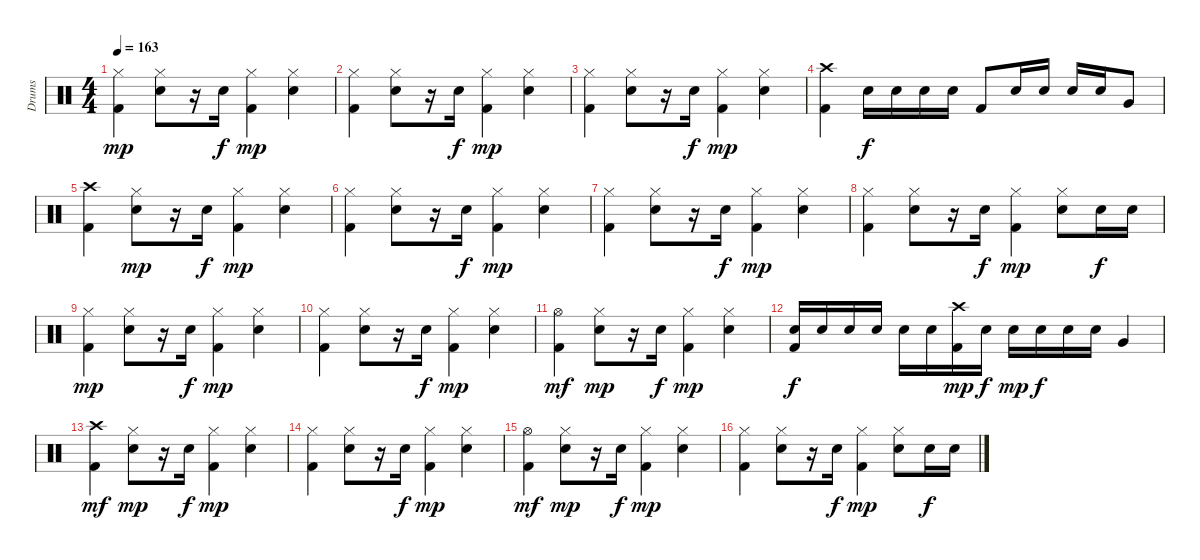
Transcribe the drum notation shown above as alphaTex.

\track ("Drums" "Drums") {instrument percussion}
\staff {score}
\articulation defaults
\ts (4 4)
\tempo 163
\clef neutral
\ks c
("Hi-Hat (closed)" "Kick (hit) 2").4{dy mp} ("Hi-Hat (closed)" "Snare (hit) 2").8 r.16 "Snare (hit) 2".16{dy f} ("Hi-Hat (closed)" "Kick (hit) 2").4{dy mp} ("Hi-Hat (closed)" "Snare (hit) 2").4 |
("Hi-Hat (closed)" "Kick (hit) 2").4 ("Hi-Hat (closed)" "Snare (hit) 2").8 r.16 "Snare (hit) 2".16{dy f} ("Hi-Hat (closed)" "Kick (hit) 2").4{dy mp} ("Hi-Hat (closed)" "Snare (hit) 2").4 |
("Hi-Hat (closed)" "Kick (hit) 2").4 ("Hi-Hat (closed)" "Snare (hit) 2").8 r.16 "Snare (hit) 2".16{dy f} ("Hi-Hat (closed)" "Kick (hit) 2").4{dy mp} ("Hi-Hat (closed)" "Snare (hit) 2").4 |
("Crash high (hit)" "Kick (hit) 2").4 "Snare (hit) 2".16{dy f} "Snare (hit) 2".16 "Snare (hit) 2".16 "Snare (hit) 2".16 "Kick (hit) 2".8 "Snare (hit) 2".16 "Snare (hit) 2".16 "Snare (hit) 2".16 "Snare (hit) 2".16 "Very Low Tom (hit)".8 |
("Crash high (hit)" "Kick (hit) 2").4 ("Hi-Hat (closed)" "Snare (hit) 2").8{dy mp} r.16 "Snare (hit) 2".16{dy f} ("Hi-Hat (closed)" "Kick (hit) 2").4{dy mp} ("Hi-Hat (closed)" "Snare (hit) 2").4 |
("Hi-Hat (closed)" "Kick (hit) 2").4 ("Hi-Hat (closed)" "Snare (hit) 2").8 r.16 "Snare (hit) 2".16{dy f} ("Hi-Hat (closed)" "Kick (hit) 2").4{dy mp} ("Hi-Hat (closed)" "Snare (hit) 2").4 |
("Hi-Hat (closed)" "Kick (hit) 2").4 ("Hi-Hat (closed)" "Snare (hit) 2").8 r.16 "Snare (hit) 2".16{dy f} ("Hi-Hat (closed)" "Kick (hit) 2").4{dy mp} ("Hi-Hat (closed)" "Snare (hit) 2").4 |
("Hi-Hat (closed)" "Kick (hit) 2").4 ("Hi-Hat (closed)" "Snare (hit) 2").8 r.16 "Snare (hit) 2".16{dy f} ("Hi-Hat (closed)" "Kick (hit) 2").4{dy mp} ("Hi-Hat (closed)" "Snare (hit) 2").8 "Snare (hit) 2".16{dy f} "Snare (hit) 2".16 |
("Hi-Hat (closed)" "Kick (hit) 2").4{dy mp} ("Hi-Hat (closed)" "Snare (hit) 2").8 r.16 "Snare (hit) 2".16{dy f} ("Hi-Hat (closed)" "Kick (hit) 2").4{dy mp} ("Hi-Hat (closed)" "Snare (hit) 2").4 |
("Hi-Hat (closed)" "Kick (hit) 2").4 ("Hi-Hat (closed)" "Snare (hit) 2").8 r.16 "Snare (hit) 2".16{dy f} ("Hi-Hat (closed)" "Kick (hit) 2").4{dy mp} ("Hi-Hat (closed)" "Snare (hit) 2").4 |
("Hi-Hat (open)" "Kick (hit) 2").4{dy mf} ("Hi-Hat (closed)" "Snare (hit) 2").8{dy mp} r.16 "Snare (hit) 2".16{dy f} ("Hi-Hat (closed)" "Kick (hit) 2").4{dy mp} ("Hi-Hat (closed)" "Snare (hit) 2").4 |
("Snare (hit) 2" "Kick (hit) 2").16{dy f} "Snare (hit) 2".16 "Snare (hit) 2".16 "Snare (hit) 2".16 "Snare (hit) 2".16 "Snare (hit) 2".16 ("Crash high (hit)" "Kick (hit) 2").16{dy mp} "Snare (hit) 2".16{dy f} "Snare (hit) 2".16{dy mp} "Snare (hit) 2".16{dy f} "Snare (hit) 2".16 "Snare (hit) 2".16 "Very Low Tom (hit)".4 |
("Crash high (hit)" "Kick (hit) 2").4{dy mf} ("Hi-Hat (closed)" "Snare (hit) 2").8{dy mp} r.16 "Snare (hit) 2".16{dy f} ("Hi-Hat (closed)" "Kick (hit) 2").4{dy mp} ("Hi-Hat (closed)" "Snare (hit) 2").4 |
("Hi-Hat (closed)" "Kick (hit) 2").4 ("Hi-Hat (closed)" "Snare (hit) 2").8 r.16 "Snare (hit) 2".16{dy f} ("Hi-Hat (closed)" "Kick (hit) 2").4{dy mp} ("Hi-Hat (closed)" "Snare (hit) 2").4 |
("Hi-Hat (open)" "Kick (hit) 2").4{dy mf} ("Hi-Hat (closed)" "Snare (hit) 2").8{dy mp} r.16 "Snare (hit) 2".16{dy f} ("Hi-Hat (closed)" "Kick (hit) 2").4{dy mp} ("Hi-Hat (closed)" "Snare (hit) 2").4 |
("Hi-Hat (closed)" "Kick (hit) 2").4 ("Hi-Hat (closed)" "Snare (hit) 2").8 r.16 "Snare (hit) 2".16{dy f} ("Hi-Hat (closed)" "Kick (hit) 2").4{dy mp} ("Hi-Hat (closed)" "Snare (hit) 2").8 "Snare (hit) 2".16{dy f} "Snare (hit) 2".16
